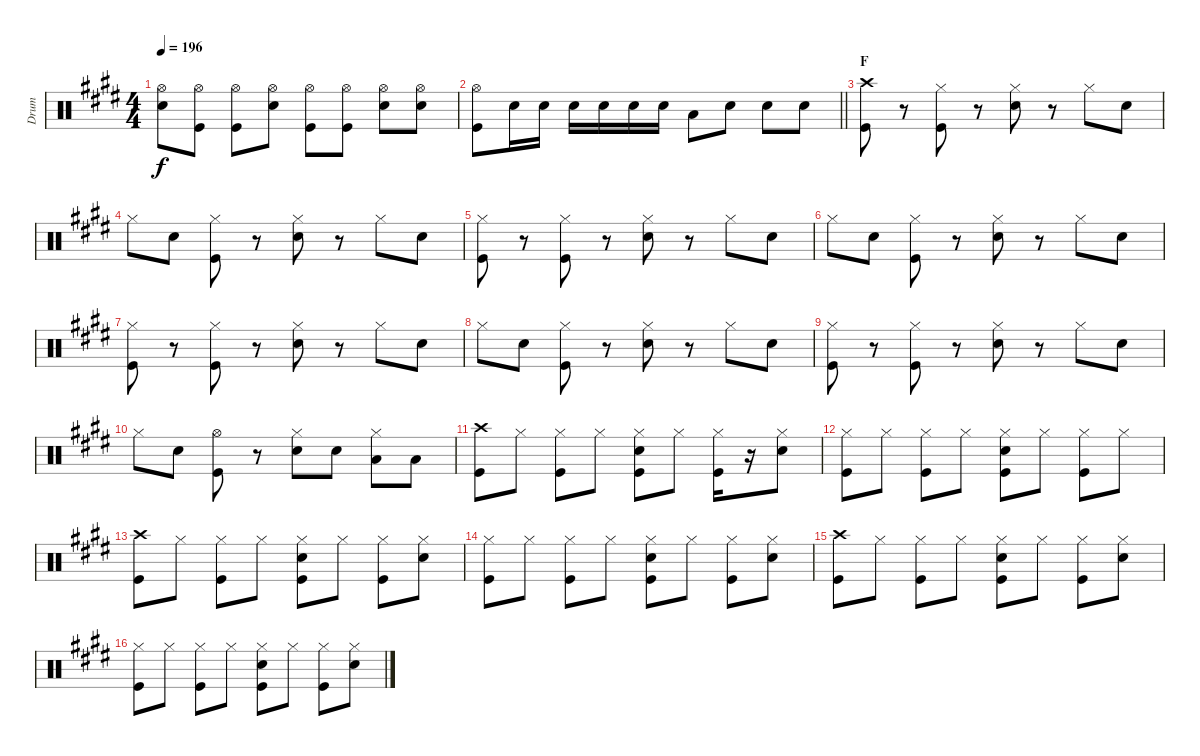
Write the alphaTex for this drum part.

\track ("Drum" "Drum") {instrument percussion}
\staff {score}
\articulation defaults
\ts (4 4)
\tempo 196
\clef neutral
\ks e
("Hi-Hat (open)" "Snare (hit) 2").8{dy f} ("Hi-Hat (open)" "Kick (hit)").8 ("Hi-Hat (open)" "Kick (hit)").8 ("Hi-Hat (open)" "Snare (hit) 2").8 ("Hi-Hat (open)" "Kick (hit)").8 ("Hi-Hat (open)" "Kick (hit)").8 ("Hi-Hat (open)" "Snare (hit) 2").8 ("Hi-Hat (open)" "Snare (hit) 2").8 |
\barLineRight lightlight
("Hi-Hat (open)" "Kick (hit)").8 "Snare (hit) 2".16 "Snare (hit) 2".16 "Snare (hit) 2".16 "Snare (hit) 2".16 "Snare (hit) 2".16 "Snare (hit) 2".16 "Low Tom (hit)".8 "Snare (hit) 2".8 "Snare (hit) 2".8 "Snare (hit) 2".8 |
\section ("" "F")
("Crash high (hit)" "Kick (hit)").8 r.8 ("Hi-Hat (closed)" "Kick (hit)").8 r.8 ("Hi-Hat (closed)" "Snare (hit) 2").8 r.8 "Hi-Hat (closed)".8 "Snare (hit) 2".8 |
"Hi-Hat (closed)".8 "Snare (hit) 2".8 ("Hi-Hat (closed)" "Kick (hit)").8 r.8 ("Hi-Hat (closed)" "Snare (hit) 2").8 r.8 "Hi-Hat (closed)".8 "Snare (hit) 2".8 |
("Hi-Hat (closed)" "Kick (hit)").8 r.8 ("Hi-Hat (closed)" "Kick (hit)").8 r.8 ("Hi-Hat (closed)" "Snare (hit) 2").8 r.8 "Hi-Hat (closed)".8 "Snare (hit) 2".8 |
"Hi-Hat (closed)".8 "Snare (hit) 2".8 ("Hi-Hat (closed)" "Kick (hit)").8 r.8 ("Hi-Hat (closed)" "Snare (hit) 2").8 r.8 "Hi-Hat (closed)".8 "Snare (hit) 2".8 |
("Hi-Hat (closed)" "Kick (hit)").8 r.8 ("Hi-Hat (closed)" "Kick (hit)").8 r.8 ("Hi-Hat (closed)" "Snare (hit) 2").8 r.8 "Hi-Hat (closed)".8 "Snare (hit) 2".8 |
"Hi-Hat (closed)".8 "Snare (hit) 2".8 ("Hi-Hat (closed)" "Kick (hit)").8 r.8 ("Hi-Hat (closed)" "Snare (hit) 2").8 r.8 "Hi-Hat (closed)".8 "Snare (hit) 2".8 |
("Hi-Hat (closed)" "Kick (hit)").8 r.8 ("Hi-Hat (closed)" "Kick (hit)").8 r.8 ("Hi-Hat (closed)" "Snare (hit) 2").8 r.8 "Hi-Hat (closed)".8 "Snare (hit) 2".8 |
"Hi-Hat (closed)".8 "Snare (hit) 2".8 ("Hi-Hat (open)" "Kick (hit)").8 r.8 ("Hi-Hat (closed)" "Snare (hit) 2").8 "Snare (hit) 2".8 ("Hi-Hat (closed)" "Low Tom (hit)").8 "Low Tom (hit)".8 |
("Crash high (hit)" "Kick (hit)").8 "Hi-Hat (closed)".8 ("Hi-Hat (closed)" "Kick (hit)").8 "Hi-Hat (closed)".8 ("Hi-Hat (closed)" "Snare (hit) 2" "Kick (hit)").8 "Hi-Hat (closed)".8 ("Hi-Hat (closed)" "Kick (hit)").16 r.16 ("Hi-Hat (closed)" "Snare (hit) 2").8 |
("Hi-Hat (closed)" "Kick (hit)").8 "Hi-Hat (closed)".8 ("Hi-Hat (closed)" "Kick (hit)").8 "Hi-Hat (closed)".8 ("Hi-Hat (closed)" "Snare (hit) 2" "Kick (hit)").8 "Hi-Hat (closed)".8 ("Hi-Hat (closed)" "Kick (hit)").8 "Hi-Hat (closed)".8 |
("Crash high (hit)" "Kick (hit)").8 "Hi-Hat (closed)".8 ("Hi-Hat (closed)" "Kick (hit)").8 "Hi-Hat (closed)".8 ("Hi-Hat (closed)" "Snare (hit) 2" "Kick (hit)").8 "Hi-Hat (closed)".8 ("Hi-Hat (closed)" "Kick (hit)").8 ("Hi-Hat (closed)" "Snare (hit) 2").8 |
("Hi-Hat (closed)" "Kick (hit)").8 "Hi-Hat (closed)".8 ("Hi-Hat (closed)" "Kick (hit)").8 "Hi-Hat (closed)".8 ("Hi-Hat (closed)" "Snare (hit) 2" "Kick (hit)").8 "Hi-Hat (closed)".8 ("Hi-Hat (closed)" "Kick (hit)").8 ("Hi-Hat (closed)" "Snare (hit) 2").8 |
("Crash high (hit)" "Kick (hit)").8 "Hi-Hat (closed)".8 ("Hi-Hat (closed)" "Kick (hit)").8 "Hi-Hat (closed)".8 ("Hi-Hat (closed)" "Snare (hit) 2" "Kick (hit)").8 "Hi-Hat (closed)".8 ("Hi-Hat (closed)" "Kick (hit)").8 ("Hi-Hat (closed)" "Snare (hit) 2").8 |
("Hi-Hat (closed)" "Kick (hit)").8 "Hi-Hat (closed)".8 ("Hi-Hat (closed)" "Kick (hit)").8 "Hi-Hat (closed)".8 ("Hi-Hat (closed)" "Snare (hit) 2" "Kick (hit)").8 "Hi-Hat (closed)".8 ("Hi-Hat (closed)" "Kick (hit)").8 ("Hi-Hat (closed)" "Snare (hit) 2").8
